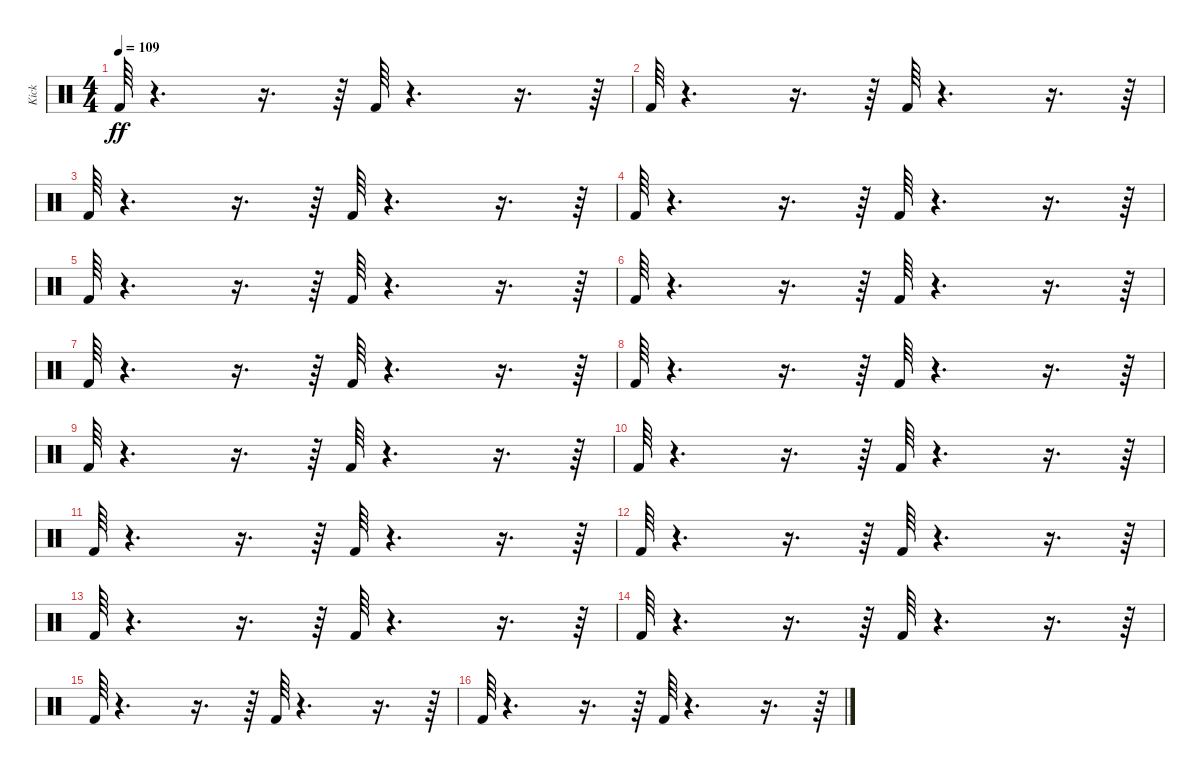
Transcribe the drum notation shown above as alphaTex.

\track ("Kick" "Kick") {instrument percussion}
\staff {score}
\articulation defaults
\ts (4 4)
\tempo 109
\clef neutral
\ks c "Kick (hit) 2".64{dy ff}
r.4{d} r.16{d} r.64 "Kick (hit) 2".64 r.4{d} r.16{d} r.64 |
"Kick (hit) 2".64 r.4{d} r.16{d} r.64 "Kick (hit) 2".64 r.4{d} r.16{d} r.64 |
"Kick (hit) 2".64 r.4{d} r.16{d} r.64 "Kick (hit) 2".64 r.4{d} r.16{d} r.64 |
"Kick (hit) 2".64 r.4{d} r.16{d} r.64 "Kick (hit) 2".64 r.4{d} r.16{d} r.64 |
"Kick (hit) 2".64 r.4{d} r.16{d} r.64 "Kick (hit) 2".64 r.4{d} r.16{d} r.64 |
"Kick (hit) 2".64 r.4{d} r.16{d} r.64 "Kick (hit) 2".64 r.4{d} r.16{d} r.64 |
"Kick (hit) 2".64 r.4{d} r.16{d} r.64 "Kick (hit) 2".64 r.4{d} r.16{d} r.64 |
"Kick (hit) 2".64 r.4{d} r.16{d} r.64 "Kick (hit) 2".64 r.4{d} r.16{d} r.64 |
"Kick (hit) 2".64 r.4{d} r.16{d} r.64 "Kick (hit) 2".64 r.4{d} r.16{d} r.64 |
"Kick (hit) 2".64 r.4{d} r.16{d} r.64 "Kick (hit) 2".64 r.4{d} r.16{d} r.64 |
"Kick (hit) 2".64 r.4{d} r.16{d} r.64 "Kick (hit) 2".64 r.4{d} r.16{d} r.64 |
"Kick (hit) 2".64 r.4{d} r.16{d} r.64 "Kick (hit) 2".64 r.4{d} r.16{d} r.64 |
"Kick (hit) 2".64 r.4{d} r.16{d} r.64 "Kick (hit) 2".64 r.4{d} r.16{d} r.64 |
"Kick (hit) 2".64 r.4{d} r.16{d} r.64 "Kick (hit) 2".64 r.4{d} r.16{d} r.64 |
"Kick (hit) 2".64 r.4{d} r.16{d} r.64 "Kick (hit) 2".64 r.4{d} r.16{d} r.64 |
"Kick (hit) 2".64 r.4{d} r.16{d} r.64 "Kick (hit) 2".64 r.4{d} r.16{d} r.64
